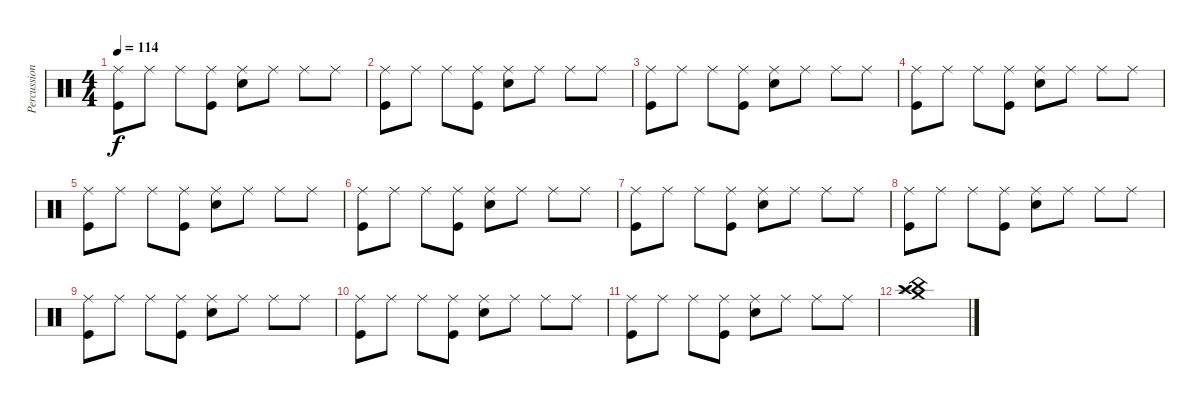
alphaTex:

\track ("Percussion" "Percussion") {instrument percussion}
\staff {score}
\articulation defaults
\ts (4 4)
\tempo 114
\clef neutral
\ks c
("Ride (middle)" "Kick (hit)").8{dy f} "Ride (middle)".8 "Ride (middle)".8 ("Ride (middle)" "Kick (hit)").8 ("Ride (middle)" "Snare (hit) 2").8 "Ride (middle)".8 "Ride (middle)".8 "Ride (middle)".8 |
("Ride (middle)" "Kick (hit)").8 "Ride (middle)".8 "Ride (middle)".8 ("Ride (middle)" "Kick (hit)").8 ("Ride (middle)" "Snare (hit) 2").8 "Ride (middle)".8 "Ride (middle)".8 "Ride (middle)".8 |
("Ride (middle)" "Kick (hit)").8 "Ride (middle)".8 "Ride (middle)".8 ("Ride (middle)" "Kick (hit)").8 ("Ride (middle)" "Snare (hit) 2").8 "Ride (middle)".8 "Ride (middle)".8 "Ride (middle)".8 |
("Ride (middle)" "Kick (hit)").8 "Ride (middle)".8 "Ride (middle)".8 ("Ride (middle)" "Kick (hit)").8 ("Ride (middle)" "Snare (hit) 2").8 "Ride (middle)".8 "Ride (middle)".8 "Ride (middle)".8 |
("Ride (middle)" "Kick (hit)").8 "Ride (middle)".8 "Ride (middle)".8 ("Ride (middle)" "Kick (hit)").8 ("Ride (middle)" "Snare (hit) 2").8 "Ride (middle)".8 "Ride (middle)".8 "Ride (middle)".8 |
("Ride (middle)" "Kick (hit)").8 "Ride (middle)".8 "Ride (middle)".8 ("Ride (middle)" "Kick (hit)").8 ("Ride (middle)" "Snare (hit) 2").8 "Ride (middle)".8 "Ride (middle)".8 "Ride (middle)".8 |
("Ride (middle)" "Kick (hit)").8 "Ride (middle)".8 "Ride (middle)".8 ("Ride (middle)" "Kick (hit)").8 ("Ride (middle)" "Snare (hit) 2").8 "Ride (middle)".8 "Ride (middle)".8 "Ride (middle)".8 |
("Ride (middle)" "Kick (hit)").8 "Ride (middle)".8 "Ride (middle)".8 ("Ride (middle)" "Kick (hit)").8 ("Ride (middle)" "Snare (hit) 2").8 "Ride (middle)".8 "Ride (middle)".8 "Ride (middle)".8 |
("Ride (middle)" "Kick (hit)").8 "Ride (middle)".8 "Ride (middle)".8 ("Ride (middle)" "Kick (hit)").8 ("Ride (middle)" "Snare (hit) 2").8 "Ride (middle)".8 "Ride (middle)".8 "Ride (middle)".8 |
("Ride (middle)" "Kick (hit)").8 "Ride (middle)".8 "Ride (middle)".8 ("Ride (middle)" "Kick (hit)").8 ("Ride (middle)" "Snare (hit) 2").8 "Ride (middle)".8 "Ride (middle)".8 "Ride (middle)".8 |
("Ride (middle)" "Kick (hit)").8 "Ride (middle)".8 "Ride (middle)".8 ("Ride (middle)" "Kick (hit)").8 ("Ride (middle)" "Snare (hit) 2").8 "Ride (middle)".8 "Ride (middle)".8 "Ride (middle)".8 |
("Crash medium (hit)" "Splash (hit)" "China (hit)" "Crash high (hit)").1
